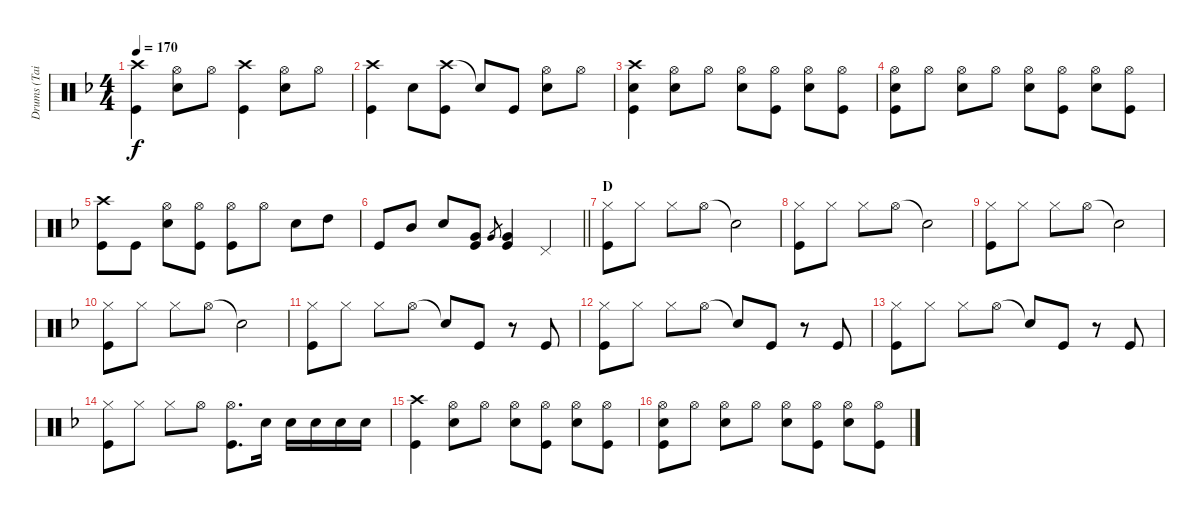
\track ("Drums (Tainaka Ritsu)" "Drums (Tai") {instrument percussion}
\staff {score}
\articulation defaults
\ts (4 4)
\tempo 170
\clef neutral
\ks f
("Crash high (hit)" "Kick (hit)").4{dy f} ("Hi-Hat (open)" "Snare (hit) 2").8 "Hi-Hat (open)".8 ("Crash high (hit)" "Kick (hit)").4 ("Hi-Hat (open)" "Snare (hit) 2").8 "Hi-Hat (open)".8 |
("Crash high (hit)" "Kick (hit)").4 "Snare (hit) 2".8 ("Crash high (hit)" "Kick (hit)").8 "Snare (hit)"{t}.8 "Kick (hit)".8 ("Hi-Hat (open)" "Snare (hit) 2").8 "Hi-Hat (open)".8 |
("Crash high (hit)" "Snare (hit) 2" "Kick (hit)").4 ("Hi-Hat (open)" "Snare (hit) 2").8 "Hi-Hat (open)".8 ("Hi-Hat (open)" "Snare (hit) 2").8 ("Hi-Hat (open)" "Kick (hit)").8 ("Hi-Hat (open)" "Snare (hit) 2").8 ("Hi-Hat (open)" "Kick (hit)").8 |
("Hi-Hat (open)" "Snare (hit) 2" "Kick (hit)").8 "Hi-Hat (open)".8 ("Hi-Hat (open)" "Snare (hit) 2").8 "Hi-Hat (open)".8 ("Hi-Hat (open)" "Snare (hit) 2").8 ("Hi-Hat (open)" "Kick (hit)").8 ("Hi-Hat (open)" "Snare (hit) 2").8 ("Hi-Hat (open)" "Kick (hit)").8 |
("Crash high (hit)" "Kick (hit)").8 "Kick (hit)".8 ("Hi-Hat (open)" "Snare (hit) 2").8 ("Hi-Hat (open)" "Kick (hit)").8 ("Hi-Hat (open)" "Kick (hit)").8 "Hi-Hat (open)".8 "Snare (hit) 2".8 "High Tom (hit)".8 |
\barLineRight lightlight "Kick (hit)".8 "Mid Tom (hit)".8 "Snare (hit) 2".8
("Very Low Tom (hit)" "Kick (hit)").8 "Very Low Tom (hit)".8{gr} ("Very Low Tom (hit)" "Kick (hit)").4 "Pedal Hi-Hat (hit)".4 |
\section ("" "D")
("Hi-Hat (closed)" "Kick (hit)").8 "Hi-Hat (closed)".8 "Hi-Hat (closed)".8 "Hi-Hat (open)".8 "Snare (hit)"{t}.2 |
("Hi-Hat (closed)" "Kick (hit)").8 "Hi-Hat (closed)".8 "Hi-Hat (closed)".8 "Hi-Hat (open)".8 "Snare (hit)"{t}.2 |
("Hi-Hat (closed)" "Kick (hit)").8 "Hi-Hat (closed)".8 "Hi-Hat (closed)".8 "Hi-Hat (open)".8 "Snare (hit)"{t}.2 |
("Hi-Hat (closed)" "Kick (hit)").8 "Hi-Hat (closed)".8 "Hi-Hat (closed)".8 "Hi-Hat (open)".8 "Snare (hit)"{t}.2 |
("Hi-Hat (closed)" "Kick (hit)").8 "Hi-Hat (closed)".8 "Hi-Hat (closed)".8 "Hi-Hat (open)".8 "Snare (hit)"{t}.8 "Kick (hit)".8 r.8 "Kick (hit)".8 |
("Hi-Hat (closed)" "Kick (hit)").8 "Hi-Hat (closed)".8 "Hi-Hat (closed)".8 "Hi-Hat (open)".8 "Snare (hit)"{t}.8 "Kick (hit)".8 r.8 "Kick (hit)".8 |
("Hi-Hat (closed)" "Kick (hit)").8 "Hi-Hat (closed)".8 "Hi-Hat (closed)".8 "Hi-Hat (open)".8 "Snare (hit)"{t}.8 "Kick (hit)".8 r.8 "Kick (hit)".8 |
("Hi-Hat (closed)" "Kick (hit)").8 "Hi-Hat (closed)".8 "Hi-Hat (closed)".8 "Hi-Hat (open)".8 ("Hi-Hat (open)" "Kick (hit)").8{d} "Snare (hit) 2".16 "Snare (hit) 2".16 "Snare (hit) 2".16 "Snare (hit) 2".16 "Snare (hit) 2".16 |
("Crash high (hit)" "Kick (hit)").4 ("Hi-Hat (open)" "Snare (hit) 2").8 "Hi-Hat (open)".8 ("Hi-Hat (open)" "Snare (hit) 2").8 ("Hi-Hat (open)" "Kick (hit)").8 ("Hi-Hat (open)" "Snare (hit) 2").8 ("Hi-Hat (open)" "Kick (hit)").8 |
("Hi-Hat (open)" "Snare (hit) 2" "Kick (hit)").8 "Hi-Hat (open)".8 ("Hi-Hat (open)" "Snare (hit) 2").8 "Hi-Hat (open)".8 ("Hi-Hat (open)" "Snare (hit) 2").8 ("Hi-Hat (open)" "Kick (hit)").8 ("Hi-Hat (open)" "Snare (hit) 2").8 ("Hi-Hat (open)" "Kick (hit)").8
